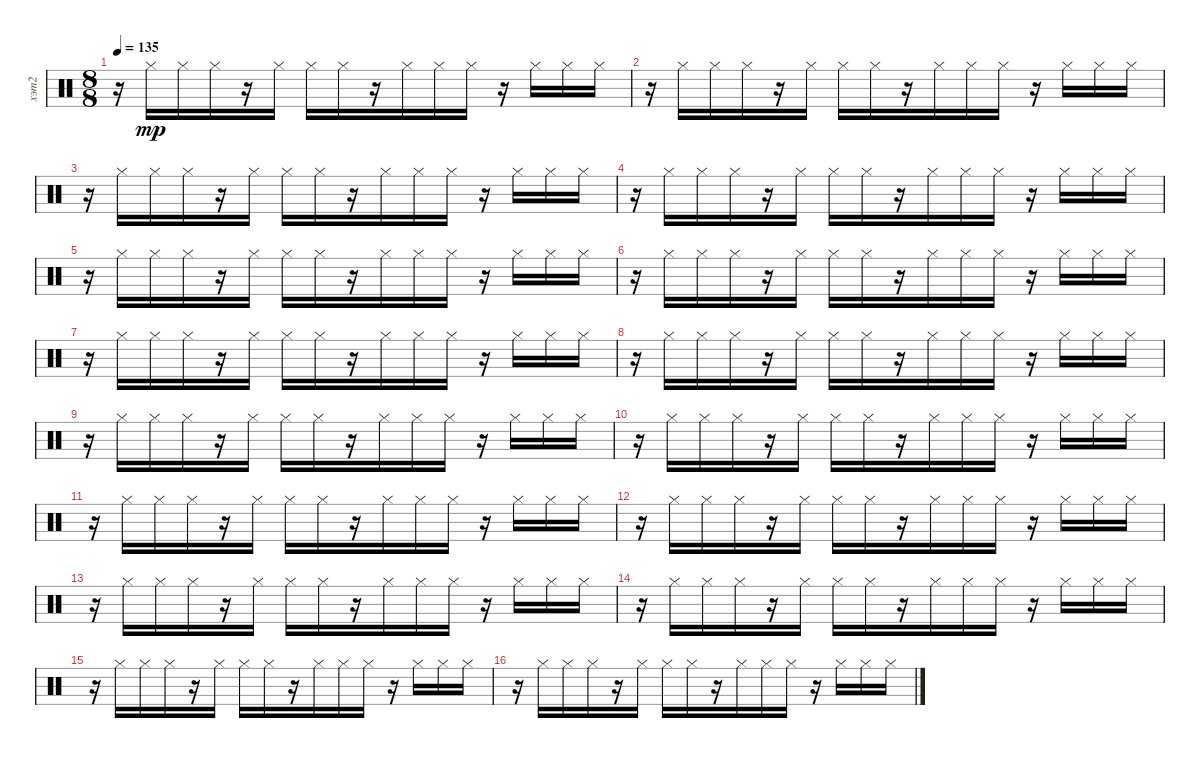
\track ("хэт2" "хэт2") {instrument percussion}
\staff {score}
\articulation defaults
\ts (8 8)
\tempo 135
\clef neutral
\ks c
r.16{dy mp} "Hi-Hat (closed)".16 "Hi-Hat (closed)".16 "Hi-Hat (closed)".16 r.16 "Hi-Hat (closed)".16 "Hi-Hat (closed)".16 "Hi-Hat (closed)".16 r.16 "Hi-Hat (closed)".16 "Hi-Hat (closed)".16 "Hi-Hat (closed)".16 r.16 "Hi-Hat (closed)".16 "Hi-Hat (closed)".16 "Hi-Hat (closed)".16 |
r.16 "Hi-Hat (closed)".16 "Hi-Hat (closed)".16 "Hi-Hat (closed)".16 r.16 "Hi-Hat (closed)".16 "Hi-Hat (closed)".16 "Hi-Hat (closed)".16 r.16 "Hi-Hat (closed)".16 "Hi-Hat (closed)".16 "Hi-Hat (closed)".16 r.16 "Hi-Hat (closed)".16 "Hi-Hat (closed)".16 "Hi-Hat (closed)".16 |
r.16 "Hi-Hat (closed)".16 "Hi-Hat (closed)".16 "Hi-Hat (closed)".16 r.16 "Hi-Hat (closed)".16 "Hi-Hat (closed)".16 "Hi-Hat (closed)".16 r.16 "Hi-Hat (closed)".16 "Hi-Hat (closed)".16 "Hi-Hat (closed)".16 r.16 "Hi-Hat (closed)".16 "Hi-Hat (closed)".16 "Hi-Hat (closed)".16 |
r.16 "Hi-Hat (closed)".16 "Hi-Hat (closed)".16 "Hi-Hat (closed)".16 r.16 "Hi-Hat (closed)".16 "Hi-Hat (closed)".16 "Hi-Hat (closed)".16 r.16 "Hi-Hat (closed)".16 "Hi-Hat (closed)".16 "Hi-Hat (closed)".16 r.16 "Hi-Hat (closed)".16 "Hi-Hat (closed)".16 "Hi-Hat (closed)".16 |
r.16 "Hi-Hat (closed)".16 "Hi-Hat (closed)".16 "Hi-Hat (closed)".16 r.16 "Hi-Hat (closed)".16 "Hi-Hat (closed)".16 "Hi-Hat (closed)".16 r.16 "Hi-Hat (closed)".16 "Hi-Hat (closed)".16 "Hi-Hat (closed)".16 r.16 "Hi-Hat (closed)".16 "Hi-Hat (closed)".16 "Hi-Hat (closed)".16 |
r.16 "Hi-Hat (closed)".16 "Hi-Hat (closed)".16 "Hi-Hat (closed)".16 r.16 "Hi-Hat (closed)".16 "Hi-Hat (closed)".16 "Hi-Hat (closed)".16 r.16 "Hi-Hat (closed)".16 "Hi-Hat (closed)".16 "Hi-Hat (closed)".16 r.16 "Hi-Hat (closed)".16 "Hi-Hat (closed)".16 "Hi-Hat (closed)".16 |
r.16 "Hi-Hat (closed)".16 "Hi-Hat (closed)".16 "Hi-Hat (closed)".16 r.16 "Hi-Hat (closed)".16 "Hi-Hat (closed)".16 "Hi-Hat (closed)".16 r.16 "Hi-Hat (closed)".16 "Hi-Hat (closed)".16 "Hi-Hat (closed)".16 r.16 "Hi-Hat (closed)".16 "Hi-Hat (closed)".16 "Hi-Hat (closed)".16 |
r.16 "Hi-Hat (closed)".16 "Hi-Hat (closed)".16 "Hi-Hat (closed)".16 r.16 "Hi-Hat (closed)".16 "Hi-Hat (closed)".16 "Hi-Hat (closed)".16 r.16 "Hi-Hat (closed)".16 "Hi-Hat (closed)".16 "Hi-Hat (closed)".16 r.16 "Hi-Hat (closed)".16 "Hi-Hat (closed)".16 "Hi-Hat (closed)".16 |
r.16 "Hi-Hat (closed)".16 "Hi-Hat (closed)".16 "Hi-Hat (closed)".16 r.16 "Hi-Hat (closed)".16 "Hi-Hat (closed)".16 "Hi-Hat (closed)".16 r.16 "Hi-Hat (closed)".16 "Hi-Hat (closed)".16 "Hi-Hat (closed)".16 r.16 "Hi-Hat (closed)".16 "Hi-Hat (closed)".16 "Hi-Hat (closed)".16 |
r.16 "Hi-Hat (closed)".16 "Hi-Hat (closed)".16 "Hi-Hat (closed)".16 r.16 "Hi-Hat (closed)".16 "Hi-Hat (closed)".16 "Hi-Hat (closed)".16 r.16 "Hi-Hat (closed)".16 "Hi-Hat (closed)".16 "Hi-Hat (closed)".16 r.16 "Hi-Hat (closed)".16 "Hi-Hat (closed)".16 "Hi-Hat (closed)".16 |
r.16 "Hi-Hat (closed)".16 "Hi-Hat (closed)".16 "Hi-Hat (closed)".16 r.16 "Hi-Hat (closed)".16 "Hi-Hat (closed)".16 "Hi-Hat (closed)".16 r.16 "Hi-Hat (closed)".16 "Hi-Hat (closed)".16 "Hi-Hat (closed)".16 r.16 "Hi-Hat (closed)".16 "Hi-Hat (closed)".16 "Hi-Hat (closed)".16 |
r.16 "Hi-Hat (closed)".16 "Hi-Hat (closed)".16 "Hi-Hat (closed)".16 r.16 "Hi-Hat (closed)".16 "Hi-Hat (closed)".16 "Hi-Hat (closed)".16 r.16 "Hi-Hat (closed)".16 "Hi-Hat (closed)".16 "Hi-Hat (closed)".16 r.16 "Hi-Hat (closed)".16 "Hi-Hat (closed)".16 "Hi-Hat (closed)".16 |
r.16 "Hi-Hat (closed)".16 "Hi-Hat (closed)".16 "Hi-Hat (closed)".16 r.16 "Hi-Hat (closed)".16 "Hi-Hat (closed)".16 "Hi-Hat (closed)".16 r.16 "Hi-Hat (closed)".16 "Hi-Hat (closed)".16 "Hi-Hat (closed)".16 r.16 "Hi-Hat (closed)".16 "Hi-Hat (closed)".16 "Hi-Hat (closed)".16 |
r.16 "Hi-Hat (closed)".16 "Hi-Hat (closed)".16 "Hi-Hat (closed)".16 r.16 "Hi-Hat (closed)".16 "Hi-Hat (closed)".16 "Hi-Hat (closed)".16 r.16 "Hi-Hat (closed)".16 "Hi-Hat (closed)".16 "Hi-Hat (closed)".16 r.16 "Hi-Hat (closed)".16 "Hi-Hat (closed)".16 "Hi-Hat (closed)".16 |
r.16 "Hi-Hat (closed)".16 "Hi-Hat (closed)".16 "Hi-Hat (closed)".16 r.16 "Hi-Hat (closed)".16 "Hi-Hat (closed)".16 "Hi-Hat (closed)".16 r.16 "Hi-Hat (closed)".16 "Hi-Hat (closed)".16 "Hi-Hat (closed)".16 r.16 "Hi-Hat (closed)".16 "Hi-Hat (closed)".16 "Hi-Hat (closed)".16 |
r.16 "Hi-Hat (closed)".16 "Hi-Hat (closed)".16 "Hi-Hat (closed)".16 r.16 "Hi-Hat (closed)".16 "Hi-Hat (closed)".16 "Hi-Hat (closed)".16 r.16 "Hi-Hat (closed)".16 "Hi-Hat (closed)".16 "Hi-Hat (closed)".16 r.16 "Hi-Hat (closed)".16 "Hi-Hat (closed)".16 "Hi-Hat (closed)".16
